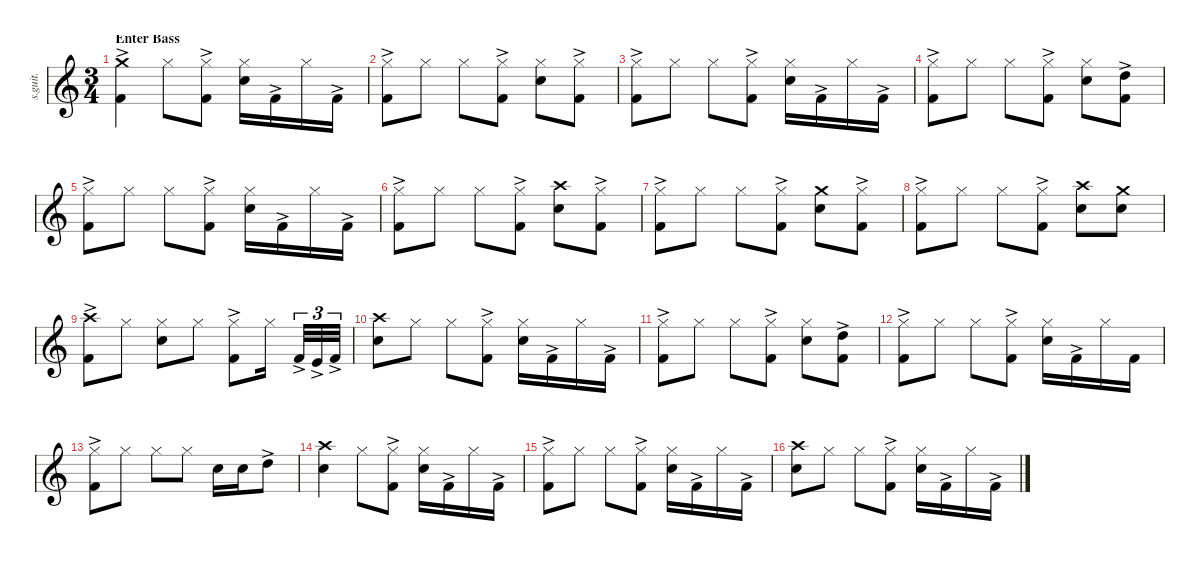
\defaultSystemsLayout 4
\hideDynamics
\bracketExtendMode nobrackets
\track ("Lars Ulrich - Drums" "s.guit.") {instrument percussion}
\staff {score}
\articulation defaults
\ts (3 4)
\beaming (8 2 2 2 2)
\section ("" "Enter Bass")
\tempo (103 hide)
\clef g2
\ks c
("Crash medium (hit)" "Kick (hit) 2"{ac}).4{lyrics (0 "") lyrics (1 "") lyrics (2 "") lyrics (3 "") lyrics (4 "") dy f} "Hi-Hat (closed)".8{lyrics (0 "") lyrics (1 "") lyrics (2 "") lyrics (3 "") lyrics (4 "")} ("Hi-Hat (closed)" "Kick (hit) 2"{ac}).8{lyrics (0 "") lyrics (1 "") lyrics (2 "") lyrics (3 "") lyrics (4 "")} ("Hi-Hat (closed)" "Snare (hit) 2").16{lyrics (0 "") lyrics (1 "") lyrics (2 "") lyrics (3 "") lyrics (4 "")} "Kick (hit) 2"{ac}.16{lyrics (0 "") lyrics (1 "") lyrics (2 "") lyrics (3 "") lyrics (4 "") dy mp} "Hi-Hat (closed)".16{lyrics (0 "") lyrics (1 "") lyrics (2 "") lyrics (3 "") lyrics (4 "") dy f} "Kick (hit) 2"{ac}.16{lyrics (0 "") lyrics (1 "") lyrics (2 "") lyrics (3 "") lyrics (4 "") dy mp} |
("Hi-Hat (closed)" "Kick (hit) 2"{ac}).8{lyrics (0 "") lyrics (1 "") lyrics (2 "") lyrics (3 "") lyrics (4 "") dy f} "Hi-Hat (closed)".8{lyrics (0 "") lyrics (1 "") lyrics (2 "") lyrics (3 "") lyrics (4 "")} "Hi-Hat (closed)".8{lyrics (0 "") lyrics (1 "") lyrics (2 "") lyrics (3 "") lyrics (4 "")} ("Hi-Hat (closed)" "Kick (hit) 2"{ac}).8{lyrics (0 "") lyrics (1 "") lyrics (2 "") lyrics (3 "") lyrics (4 "")} ("Hi-Hat (closed)" "Snare (hit) 2").8{lyrics (0 "") lyrics (1 "") lyrics (2 "") lyrics (3 "") lyrics (4 "")} ("Hi-Hat (closed)" "Kick (hit) 2"{ac}).8{lyrics (0 "") lyrics (1 "") lyrics (2 "") lyrics (3 "") lyrics (4 "")} |
("Hi-Hat (closed)" "Kick (hit) 2"{ac}).8{lyrics (0 "") lyrics (1 "") lyrics (2 "") lyrics (3 "") lyrics (4 "")} "Hi-Hat (closed)".8{lyrics (0 "") lyrics (1 "") lyrics (2 "") lyrics (3 "") lyrics (4 "")} "Hi-Hat (closed)".8{lyrics (0 "") lyrics (1 "") lyrics (2 "") lyrics (3 "") lyrics (4 "")} ("Hi-Hat (closed)" "Kick (hit) 2"{ac}).8{lyrics (0 "") lyrics (1 "") lyrics (2 "") lyrics (3 "") lyrics (4 "")} ("Hi-Hat (closed)" "Snare (hit) 2").16{lyrics (0 "") lyrics (1 "") lyrics (2 "") lyrics (3 "") lyrics (4 "")} "Kick (hit) 2"{ac}.16{lyrics (0 "") lyrics (1 "") lyrics (2 "") lyrics (3 "") lyrics (4 "") dy mp} "Hi-Hat (closed)".16{lyrics (0 "") lyrics (1 "") lyrics (2 "") lyrics (3 "") lyrics (4 "") dy f} "Kick (hit) 2"{ac}.16{lyrics (0 "") lyrics (1 "") lyrics (2 "") lyrics (3 "") lyrics (4 "") dy mp} |
("Hi-Hat (closed)" "Kick (hit) 2"{ac}).8{lyrics (0 "") lyrics (1 "") lyrics (2 "") lyrics (3 "") lyrics (4 "") dy f} "Hi-Hat (closed)".8{lyrics (0 "") lyrics (1 "") lyrics (2 "") lyrics (3 "") lyrics (4 "")} "Hi-Hat (closed)".8{lyrics (0 "") lyrics (1 "") lyrics (2 "") lyrics (3 "") lyrics (4 "")} ("Hi-Hat (closed)" "Kick (hit) 2"{ac}).8{lyrics (0 "") lyrics (1 "") lyrics (2 "") lyrics (3 "") lyrics (4 "")} ("Hi-Hat (closed)" "Snare (hit) 2").8{lyrics (0 "") lyrics (1 "") lyrics (2 "") lyrics (3 "") lyrics (4 "")} ("High Tom (hit)"{ac} "Kick (hit) 2"{ac}).8{lyrics (0 "") lyrics (1 "") lyrics (2 "") lyrics (3 "") lyrics (4 "") dy mp} |
("Hi-Hat (closed)" "Kick (hit) 2"{ac}).8{lyrics (0 "") lyrics (1 "") lyrics (2 "") lyrics (3 "") lyrics (4 "") dy f} "Hi-Hat (closed)".8{lyrics (0 "") lyrics (1 "") lyrics (2 "") lyrics (3 "") lyrics (4 "")} "Hi-Hat (closed)".8{lyrics (0 "") lyrics (1 "") lyrics (2 "") lyrics (3 "") lyrics (4 "")} ("Hi-Hat (closed)" "Kick (hit) 2"{ac}).8{lyrics (0 "") lyrics (1 "") lyrics (2 "") lyrics (3 "") lyrics (4 "")} ("Hi-Hat (closed)" "Snare (hit) 2").16{lyrics (0 "") lyrics (1 "") lyrics (2 "") lyrics (3 "") lyrics (4 "")} "Kick (hit) 2"{ac}.16{lyrics (0 "") lyrics (1 "") lyrics (2 "") lyrics (3 "") lyrics (4 "") dy mp} "Hi-Hat (closed)".16{lyrics (0 "") lyrics (1 "") lyrics (2 "") lyrics (3 "") lyrics (4 "") dy f} "Kick (hit) 2"{ac}.16{lyrics (0 "") lyrics (1 "") lyrics (2 "") lyrics (3 "") lyrics (4 "") dy mp} |
("Hi-Hat (closed)" "Kick (hit) 2"{ac}).8{lyrics (0 "") lyrics (1 "") lyrics (2 "") lyrics (3 "") lyrics (4 "") dy f} "Hi-Hat (closed)".8{lyrics (0 "") lyrics (1 "") lyrics (2 "") lyrics (3 "") lyrics (4 "")} "Hi-Hat (closed)".8{lyrics (0 "") lyrics (1 "") lyrics (2 "") lyrics (3 "") lyrics (4 "")} ("Hi-Hat (closed)" "Kick (hit) 2"{ac}).8{lyrics (0 "") lyrics (1 "") lyrics (2 "") lyrics (3 "") lyrics (4 "")} ("Crash high (hit)" "Snare (hit) 2").8{lyrics (0 "") lyrics (1 "") lyrics (2 "") lyrics (3 "") lyrics (4 "")} ("Hi-Hat (closed)" "Kick (hit) 2"{ac}).8{lyrics (0 "") lyrics (1 "") lyrics (2 "") lyrics (3 "") lyrics (4 "")} |
("Hi-Hat (closed)" "Kick (hit) 2"{ac}).8{lyrics (0 "") lyrics (1 "") lyrics (2 "") lyrics (3 "") lyrics (4 "")} "Hi-Hat (closed)".8{lyrics (0 "") lyrics (1 "") lyrics (2 "") lyrics (3 "") lyrics (4 "")} "Hi-Hat (closed)".8{lyrics (0 "") lyrics (1 "") lyrics (2 "") lyrics (3 "") lyrics (4 "")} ("Hi-Hat (closed)" "Kick (hit) 2"{ac}).8{lyrics (0 "") lyrics (1 "") lyrics (2 "") lyrics (3 "") lyrics (4 "")} ("Crash medium (hit)" "Snare (hit) 2").8{lyrics (0 "") lyrics (1 "") lyrics (2 "") lyrics (3 "") lyrics (4 "")} ("Hi-Hat (closed)" "Kick (hit) 2"{ac}).8{lyrics (0 "") lyrics (1 "") lyrics (2 "") lyrics (3 "") lyrics (4 "")} |
("Hi-Hat (closed)" "Kick (hit) 2"{ac}).8{lyrics (0 "") lyrics (1 "") lyrics (2 "") lyrics (3 "") lyrics (4 "")} "Hi-Hat (closed)".8{lyrics (0 "") lyrics (1 "") lyrics (2 "") lyrics (3 "") lyrics (4 "")} "Hi-Hat (closed)".8{lyrics (0 "") lyrics (1 "") lyrics (2 "") lyrics (3 "") lyrics (4 "")} ("Hi-Hat (closed)" "Kick (hit) 2"{ac}).8{lyrics (0 "") lyrics (1 "") lyrics (2 "") lyrics (3 "") lyrics (4 "")} ("Crash high (hit)" "Snare (hit) 2").8{lyrics (0 "") lyrics (1 "") lyrics (2 "") lyrics (3 "") lyrics (4 "")} ("Crash medium (hit)" "Snare (hit) 2").8{lyrics (0 "") lyrics (1 "") lyrics (2 "") lyrics (3 "") lyrics (4 "")} |
("Kick (hit) 2"{ac} "Crash high (hit)").8{lyrics (0 "") lyrics (1 "") lyrics (2 "") lyrics (3 "") lyrics (4 "")} "Hi-Hat (closed)".8{lyrics (0 "") lyrics (1 "") lyrics (2 "") lyrics (3 "") lyrics (4 "")} ("Hi-Hat (closed)" "Snare (hit) 2").8{lyrics (0 "") lyrics (1 "") lyrics (2 "") lyrics (3 "") lyrics (4 "")} "Hi-Hat (closed)".8{lyrics (0 "") lyrics (1 "") lyrics (2 "") lyrics (3 "") lyrics (4 "")} ("Hi-Hat (closed)" "Kick (hit) 2"{ac}).8{lyrics (0 "") lyrics (1 "") lyrics (2 "") lyrics (3 "") lyrics (4 "")} "Hi-Hat (closed)".16{lyrics (0 "") lyrics (1 "") lyrics (2 "") lyrics (3 "") lyrics (4 "")} "Kick (hit) 2"{ac}.32{tu (3 2) lyrics (0 "") lyrics (1 "") lyrics (2 "") lyrics (3 "") lyrics (4 "") dy mp} "Kick (hit)"{ac}.32{tu (3 2) lyrics (0 "") lyrics (1 "") lyrics (2 "") lyrics (3 "") lyrics (4 "") dy mf} "Kick (hit) 2"{ac}.32{tu (3 2) lyrics (0 "") lyrics (1 "") lyrics (2 "") lyrics (3 "") lyrics (4 "") dy mp} |
("Crash high (hit)" "Snare (hit) 2").8{lyrics (0 "") lyrics (1 "") lyrics (2 "") lyrics (3 "") lyrics (4 "") dy f} "Hi-Hat (closed)".8{lyrics (0 "") lyrics (1 "") lyrics (2 "") lyrics (3 "") lyrics (4 "")} "Hi-Hat (closed)".8{lyrics (0 "") lyrics (1 "") lyrics (2 "") lyrics (3 "") lyrics (4 "")} ("Hi-Hat (closed)" "Kick (hit) 2"{ac}).8{lyrics (0 "") lyrics (1 "") lyrics (2 "") lyrics (3 "") lyrics (4 "")} ("Hi-Hat (closed)" "Snare (hit) 2").16{lyrics (0 "") lyrics (1 "") lyrics (2 "") lyrics (3 "") lyrics (4 "")} "Kick (hit) 2"{ac}.16{lyrics (0 "") lyrics (1 "") lyrics (2 "") lyrics (3 "") lyrics (4 "") dy mp} "Hi-Hat (closed)".16{lyrics (0 "") lyrics (1 "") lyrics (2 "") lyrics (3 "") lyrics (4 "") dy f} "Kick (hit) 2"{ac}.16{lyrics (0 "") lyrics (1 "") lyrics (2 "") lyrics (3 "") lyrics (4 "") dy mp} |
("Hi-Hat (closed)" "Kick (hit) 2"{ac}).8{lyrics (0 "") lyrics (1 "") lyrics (2 "") lyrics (3 "") lyrics (4 "") dy f} "Hi-Hat (closed)".8{lyrics (0 "") lyrics (1 "") lyrics (2 "") lyrics (3 "") lyrics (4 "")} "Hi-Hat (closed)".8{lyrics (0 "") lyrics (1 "") lyrics (2 "") lyrics (3 "") lyrics (4 "")} ("Hi-Hat (closed)" "Kick (hit) 2"{ac}).8{lyrics (0 "") lyrics (1 "") lyrics (2 "") lyrics (3 "") lyrics (4 "")} ("Hi-Hat (closed)" "Snare (hit) 2").8{lyrics (0 "") lyrics (1 "") lyrics (2 "") lyrics (3 "") lyrics (4 "")} ("High Tom (hit)"{ac} "Kick (hit) 2"{ac}).8{lyrics (0 "") lyrics (1 "") lyrics (2 "") lyrics (3 "") lyrics (4 "") dy mp} |
("Hi-Hat (closed)" "Kick (hit) 2"{ac}).8{lyrics (0 "") lyrics (1 "") lyrics (2 "") lyrics (3 "") lyrics (4 "") dy f} "Hi-Hat (closed)".8{lyrics (0 "") lyrics (1 "") lyrics (2 "") lyrics (3 "") lyrics (4 "")} "Hi-Hat (closed)".8{lyrics (0 "") lyrics (1 "") lyrics (2 "") lyrics (3 "") lyrics (4 "")} ("Hi-Hat (closed)" "Kick (hit) 2"{ac}).8{lyrics (0 "") lyrics (1 "") lyrics (2 "") lyrics (3 "") lyrics (4 "")} ("Hi-Hat (closed)" "Snare (hit) 2").16{lyrics (0 "") lyrics (1 "") lyrics (2 "") lyrics (3 "") lyrics (4 "")} "Kick (hit) 2"{ac}.16{lyrics (0 "") lyrics (1 "") lyrics (2 "") lyrics (3 "") lyrics (4 "") dy mp} "Hi-Hat (closed)".16{lyrics (0 "") lyrics (1 "") lyrics (2 "") lyrics (3 "") lyrics (4 "") dy f} "Kick (hit) 2".16{lyrics (0 "") lyrics (1 "") lyrics (2 "") lyrics (3 "") lyrics (4 "")} |
("Hi-Hat (closed)" "Kick (hit) 2"{ac}).8{lyrics (0 "") lyrics (1 "") lyrics (2 "") lyrics (3 "") lyrics (4 "")} "Hi-Hat (closed)".8{lyrics (0 "") lyrics (1 "") lyrics (2 "") lyrics (3 "") lyrics (4 "")} "Hi-Hat (closed)".8{lyrics (0 "") lyrics (1 "") lyrics (2 "") lyrics (3 "") lyrics (4 "")} "Hi-Hat (closed)".8{lyrics (0 "") lyrics (1 "") lyrics (2 "") lyrics (3 "") lyrics (4 "")} "Snare (hit) 2".16{lyrics (0 "") lyrics (1 "") lyrics (2 "") lyrics (3 "") lyrics (4 "")} "Snare (hit) 2".16{lyrics (0 "") lyrics (1 "") lyrics (2 "") lyrics (3 "") lyrics (4 "")} "High Tom (hit)"{ac}.8{lyrics (0 "") lyrics (1 "") lyrics (2 "") lyrics (3 "") lyrics (4 "") dy mp} |
("Crash high (hit)" "Snare (hit) 2").4{lyrics (0 "") lyrics (1 "") lyrics (2 "") lyrics (3 "") lyrics (4 "") dy f} "Hi-Hat (closed)".8{lyrics (0 "") lyrics (1 "") lyrics (2 "") lyrics (3 "") lyrics (4 "")} ("Hi-Hat (closed)" "Kick (hit) 2"{ac}).8{lyrics (0 "") lyrics (1 "") lyrics (2 "") lyrics (3 "") lyrics (4 "")} ("Hi-Hat (closed)" "Snare (hit) 2").16{lyrics (0 "") lyrics (1 "") lyrics (2 "") lyrics (3 "") lyrics (4 "")} "Kick (hit) 2"{ac}.16{lyrics (0 "") lyrics (1 "") lyrics (2 "") lyrics (3 "") lyrics (4 "") dy mp} "Hi-Hat (closed)".16{lyrics (0 "") lyrics (1 "") lyrics (2 "") lyrics (3 "") lyrics (4 "") dy f} "Kick (hit) 2"{ac}.16{lyrics (0 "") lyrics (1 "") lyrics (2 "") lyrics (3 "") lyrics (4 "") dy mp} |
("Hi-Hat (closed)" "Kick (hit) 2"{ac}).8{lyrics (0 "") lyrics (1 "") lyrics (2 "") lyrics (3 "") lyrics (4 "") dy f} "Hi-Hat (closed)".8{lyrics (0 "") lyrics (1 "") lyrics (2 "") lyrics (3 "") lyrics (4 "")} "Hi-Hat (closed)".8{lyrics (0 "") lyrics (1 "") lyrics (2 "") lyrics (3 "") lyrics (4 "")} ("Hi-Hat (closed)" "Kick (hit) 2"{ac}).8{lyrics (0 "") lyrics (1 "") lyrics (2 "") lyrics (3 "") lyrics (4 "")} ("Hi-Hat (closed)" "Snare (hit) 2").16{lyrics (0 "") lyrics (1 "") lyrics (2 "") lyrics (3 "") lyrics (4 "")} "Kick (hit) 2"{ac}.16{lyrics (0 "") lyrics (1 "") lyrics (2 "") lyrics (3 "") lyrics (4 "") dy mp} "Hi-Hat (closed)".16{lyrics (0 "") lyrics (1 "") lyrics (2 "") lyrics (3 "") lyrics (4 "") dy f} "Kick (hit) 2"{ac}.16{lyrics (0 "") lyrics (1 "") lyrics (2 "") lyrics (3 "") lyrics (4 "") dy mp} |
("Crash high (hit)" "Snare (hit) 2").8{lyrics (0 "") lyrics (1 "") lyrics (2 "") lyrics (3 "") lyrics (4 "") dy f} "Hi-Hat (closed)".8{lyrics (0 "") lyrics (1 "") lyrics (2 "") lyrics (3 "") lyrics (4 "")} "Hi-Hat (closed)".8{lyrics (0 "") lyrics (1 "") lyrics (2 "") lyrics (3 "") lyrics (4 "")} ("Hi-Hat (closed)" "Kick (hit) 2"{ac}).8{lyrics (0 "") lyrics (1 "") lyrics (2 "") lyrics (3 "") lyrics (4 "")} ("Hi-Hat (closed)" "Snare (hit) 2").16{lyrics (0 "") lyrics (1 "") lyrics (2 "") lyrics (3 "") lyrics (4 "")} "Kick (hit) 2"{ac}.16{lyrics (0 "") lyrics (1 "") lyrics (2 "") lyrics (3 "") lyrics (4 "") dy mp} "Hi-Hat (closed)".16{lyrics (0 "") lyrics (1 "") lyrics (2 "") lyrics (3 "") lyrics (4 "") dy f} "Kick (hit) 2"{ac}.16{lyrics (0 "") lyrics (1 "") lyrics (2 "") lyrics (3 "") lyrics (4 "") dy mp}
